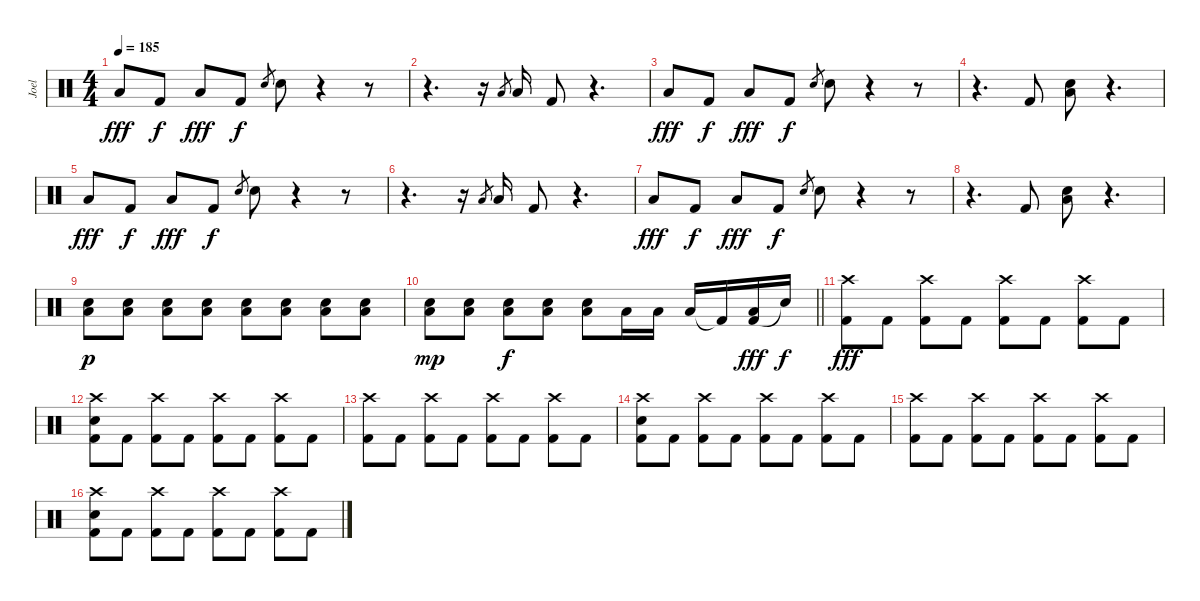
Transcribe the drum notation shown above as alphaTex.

\track ("Joel" "Joel") {instrument percussion}
\staff {score}
\articulation defaults
\ts (4 4)
\tempo 185
\clef neutral
\ks c "Low Floor Tom (hit)".8{dy fff} "Kick (hit) 2".8{dy f} "Low Floor Tom (hit)".8{dy fff} "Kick (hit) 2".8{dy f} "Electric Snare (hit)".8{gr} "Electric Snare (hit)".8
r.4 r.8 |
r.4{d} r.16 "Low Floor Tom (hit)".8{gr} "Low Floor Tom (hit)".16 "Kick (hit) 2".8 r.4{d} |
"Low Floor Tom (hit)".8{dy fff} "Kick (hit) 2".8{dy f} "Low Floor Tom (hit)".8{dy fff} "Kick (hit) 2".8{dy f} "Electric Snare (hit)".8{gr} "Electric Snare (hit)".8 r.4 r.8 |
r.4{d} "Kick (hit) 2".8 ("Low Floor Tom (hit)" "Electric Snare (hit)").8 r.4{d} |
"Low Floor Tom (hit)".8{dy fff} "Kick (hit) 2".8{dy f} "Low Floor Tom (hit)".8{dy fff} "Kick (hit) 2".8{dy f} "Electric Snare (hit)".8{gr} "Electric Snare (hit)".8 r.4 r.8 |
r.4{d} r.16 "Low Floor Tom (hit)".8{gr} "Low Floor Tom (hit)".16 "Kick (hit) 2".8 r.4{d} |
"Low Floor Tom (hit)".8{dy fff} "Kick (hit) 2".8{dy f} "Low Floor Tom (hit)".8{dy fff} "Kick (hit) 2".8{dy f} "Electric Snare (hit)".8{gr} "Electric Snare (hit)".8 r.4 r.8 |
r.4{d} "Kick (hit) 2".8 ("Low Floor Tom (hit)" "Electric Snare (hit)").8 r.4{d} |
("Low Floor Tom (hit)" "Electric Snare (hit)").8{dy p} ("Low Floor Tom (hit)" "Electric Snare (hit)").8 ("Low Floor Tom (hit)" "Electric Snare (hit)").8 ("Low Floor Tom (hit)" "Electric Snare (hit)").8 ("Low Floor Tom (hit)" "Electric Snare (hit)").8 ("Low Floor Tom (hit)" "Electric Snare (hit)").8 ("Low Floor Tom (hit)" "Electric Snare (hit)").8 ("Low Floor Tom (hit)" "Electric Snare (hit)").8 |
\barLineRight lightlight
("Low Floor Tom (hit)" "Electric Snare (hit)").8{dy mp} ("Low Floor Tom (hit)" "Electric Snare (hit)").8 ("Low Floor Tom (hit)" "Electric Snare (hit)").8{dy f} ("Low Floor Tom (hit)" "Electric Snare (hit)").8 ("Low Floor Tom (hit)" "Electric Snare (hit)").8 "Low Tom (hit)".16 "Low Tom (hit)".16 "Low Tom (hit)".16 "Kick (hit) 2"{t}.16 ("Kick (hit) 2" "Low Floor Tom (hit)").16{dy fff} "Snare (hit)"{t}.16{dy f} |
\section ("" "")
("Crash high (hit)" "Kick (hit) 2").8{dy fff} "Kick (hit) 2".8 ("Crash high (hit)" "Kick (hit) 2").8 "Kick (hit) 2".8 ("Crash high (hit)" "Kick (hit) 2").8 "Kick (hit) 2".8 ("Crash high (hit)" "Kick (hit) 2").8 "Kick (hit) 2".8 |
("Crash high (hit)" "Electric Snare (hit)" "Kick (hit) 2").8 "Kick (hit) 2".8 ("Crash high (hit)" "Kick (hit) 2").8 "Kick (hit) 2".8 ("Crash high (hit)" "Kick (hit) 2").8 "Kick (hit) 2".8 ("Crash high (hit)" "Kick (hit) 2").8 "Kick (hit) 2".8 |
("Crash high (hit)" "Kick (hit) 2").8 "Kick (hit) 2".8 ("Crash high (hit)" "Kick (hit) 2").8 "Kick (hit) 2".8 ("Crash high (hit)" "Kick (hit) 2").8 "Kick (hit) 2".8 ("Crash high (hit)" "Kick (hit) 2").8 "Kick (hit) 2".8 |
("Crash high (hit)" "Electric Snare (hit)" "Kick (hit) 2").8 "Kick (hit) 2".8 ("Crash high (hit)" "Kick (hit) 2").8 "Kick (hit) 2".8 ("Crash high (hit)" "Kick (hit) 2").8 "Kick (hit) 2".8 ("Crash high (hit)" "Kick (hit) 2").8 "Kick (hit) 2".8 |
("Crash high (hit)" "Kick (hit) 2").8 "Kick (hit) 2".8 ("Crash high (hit)" "Kick (hit) 2").8 "Kick (hit) 2".8 ("Crash high (hit)" "Kick (hit) 2").8 "Kick (hit) 2".8 ("Crash high (hit)" "Kick (hit) 2").8 "Kick (hit) 2".8 |
("Crash high (hit)" "Electric Snare (hit)" "Kick (hit) 2").8 "Kick (hit) 2".8 ("Crash high (hit)" "Kick (hit) 2").8 "Kick (hit) 2".8 ("Crash high (hit)" "Kick (hit) 2").8 "Kick (hit) 2".8 ("Crash high (hit)" "Kick (hit) 2").8 "Kick (hit) 2".8
